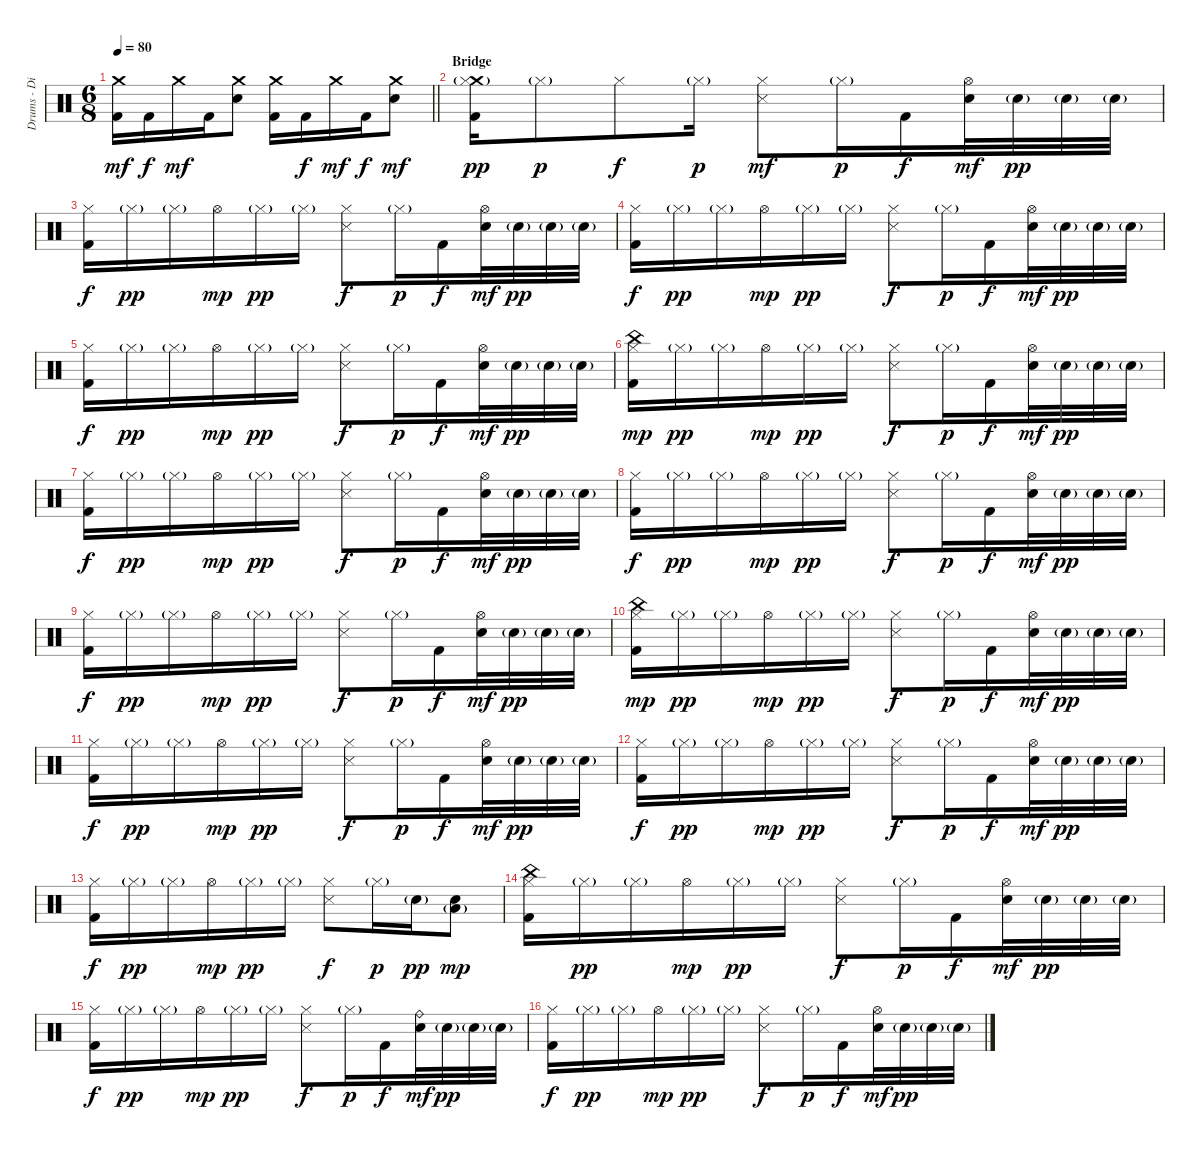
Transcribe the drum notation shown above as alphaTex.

\track ("Drums - Dino Campanella" "Drums - Di") {instrument percussion}
\staff {score}
\articulation defaults
\ts (6 8)
\tempo 80
\clef neutral
\barLineRight lightlight
\ks c
("Crash medium (hit)" "Kick (hit) 2").16{dy mf} "Kick (hit) 2".16{dy f} "Crash medium (hit)".16{dy mf} "Kick (hit) 2".16 ("Crash medium (hit)" "Electric Snare (hit)").8 ("Crash medium (hit)" "Kick (hit) 2").16 "Kick (hit) 2".16{dy f} "Crash medium (hit)".16{dy mf} "Kick (hit) 2".16{dy f} ("Crash medium (hit)" "Electric Snare (hit)").8{dy mf} |
\section ("" "Bridge")
("Crash medium (hit)"{g} "Hi-Hat (closed)"{g} "Kick (hit) 2").16{dy pp} "Hi-Hat (closed)"{g}.8{dy p} "Hi-Hat (closed)".8{dy f} "Hi-Hat (closed)"{g}.16{dy p} ("Hi-Hat (closed)" "Snare (side stick) 3").8{dy mf} "Hi-Hat (closed)"{g}.16{dy p} "Kick (hit) 2".16{dy f} ("Hi-Hat (open)" "Electric Snare (hit)").32{dy mf} "Snare (hit) 2"{g}.32{dy pp} "Snare (hit) 2"{g}.32 "Snare (hit) 2"{g}.32 |
("Hi-Hat (closed)" "Kick (hit) 2").16{dy f} "Hi-Hat (closed)"{g}.16{dy pp} "Hi-Hat (closed)"{g}.16 "Hi-Hat (open)".16{dy mp} "Hi-Hat (closed)"{g}.16{dy pp} "Hi-Hat (closed)"{g}.16 ("Hi-Hat (closed)" "Snare (side stick) 3").8{dy f} "Hi-Hat (closed)"{g}.16{dy p} "Kick (hit) 2".16{dy f} ("Hi-Hat (open)" "Electric Snare (hit)").32{dy mf} "Snare (hit) 2"{g}.32{dy pp} "Snare (hit) 2"{g}.32 "Snare (hit) 2"{g}.32 |
("Hi-Hat (closed)" "Kick (hit) 2").16{dy f} "Hi-Hat (closed)"{g}.16{dy pp} "Hi-Hat (closed)"{g}.16 "Hi-Hat (open)".16{dy mp} "Hi-Hat (closed)"{g}.16{dy pp} "Hi-Hat (closed)"{g}.16 ("Hi-Hat (closed)" "Snare (side stick) 3").8{dy f} "Hi-Hat (closed)"{g}.16{dy p} "Kick (hit) 2".16{dy f} ("Hi-Hat (open)" "Electric Snare (hit)").32{dy mf} "Snare (hit) 2"{g}.32{dy pp} "Snare (hit) 2"{g}.32 "Snare (hit) 2"{g}.32 |
("Hi-Hat (closed)" "Kick (hit) 2").16{dy f} "Hi-Hat (closed)"{g}.16{dy pp} "Hi-Hat (closed)"{g}.16 "Hi-Hat (open)".16{dy mp} "Hi-Hat (closed)"{g}.16{dy pp} "Hi-Hat (closed)"{g}.16 ("Hi-Hat (closed)" "Snare (side stick) 3").8{dy f} "Hi-Hat (closed)"{g}.16{dy p} "Kick (hit) 2".16{dy f} ("Hi-Hat (open)" "Electric Snare (hit)").32{dy mf} "Snare (hit) 2"{g}.32{dy pp} "Snare (hit) 2"{g}.32 "Snare (hit) 2"{g}.32 |
("China (hit)" "Hi-Hat (closed)" "Kick (hit) 2").16{dy mp} "Hi-Hat (closed)"{g}.16{dy pp} "Hi-Hat (closed)"{g}.16 "Hi-Hat (open)".16{dy mp} "Hi-Hat (closed)"{g}.16{dy pp} "Hi-Hat (closed)"{g}.16 ("Hi-Hat (closed)" "Snare (side stick) 3").8{dy f} "Hi-Hat (closed)"{g}.16{dy p} "Kick (hit) 2".16{dy f} ("Hi-Hat (open)" "Electric Snare (hit)").32{dy mf} "Snare (hit) 2"{g}.32{dy pp} "Snare (hit) 2"{g}.32 "Snare (hit) 2"{g}.32 |
("Hi-Hat (closed)" "Kick (hit) 2").16{dy f} "Hi-Hat (closed)"{g}.16{dy pp} "Hi-Hat (closed)"{g}.16 "Hi-Hat (open)".16{dy mp} "Hi-Hat (closed)"{g}.16{dy pp} "Hi-Hat (closed)"{g}.16 ("Hi-Hat (closed)" "Snare (side stick) 3").8{dy f} "Hi-Hat (closed)"{g}.16{dy p} "Kick (hit) 2".16{dy f} ("Hi-Hat (open)" "Electric Snare (hit)").32{dy mf} "Snare (hit) 2"{g}.32{dy pp} "Snare (hit) 2"{g}.32 "Snare (hit) 2"{g}.32 |
("Hi-Hat (closed)" "Kick (hit) 2").16{dy f} "Hi-Hat (closed)"{g}.16{dy pp} "Hi-Hat (closed)"{g}.16 "Hi-Hat (open)".16{dy mp} "Hi-Hat (closed)"{g}.16{dy pp} "Hi-Hat (closed)"{g}.16 ("Hi-Hat (closed)" "Snare (side stick) 3").8{dy f} "Hi-Hat (closed)"{g}.16{dy p} "Kick (hit) 2".16{dy f} ("Hi-Hat (open)" "Electric Snare (hit)").32{dy mf} "Snare (hit) 2"{g}.32{dy pp} "Snare (hit) 2"{g}.32 "Snare (hit) 2"{g}.32 |
("Hi-Hat (closed)" "Kick (hit) 2").16{dy f} "Hi-Hat (closed)"{g}.16{dy pp} "Hi-Hat (closed)"{g}.16 "Hi-Hat (open)".16{dy mp} "Hi-Hat (closed)"{g}.16{dy pp} "Hi-Hat (closed)"{g}.16 ("Hi-Hat (closed)" "Snare (side stick) 3").8{dy f} "Hi-Hat (closed)"{g}.16{dy p} "Kick (hit) 2".16{dy f} ("Hi-Hat (open)" "Electric Snare (hit)").32{dy mf} "Snare (hit) 2"{g}.32{dy pp} "Snare (hit) 2"{g}.32 "Snare (hit) 2"{g}.32 |
("China (hit)" "Hi-Hat (closed)" "Kick (hit) 2").16{dy mp} "Hi-Hat (closed)"{g}.16{dy pp} "Hi-Hat (closed)"{g}.16 "Hi-Hat (open)".16{dy mp} "Hi-Hat (closed)"{g}.16{dy pp} "Hi-Hat (closed)"{g}.16 ("Hi-Hat (closed)" "Snare (side stick) 3").8{dy f} "Hi-Hat (closed)"{g}.16{dy p} "Kick (hit) 2".16{dy f} ("Hi-Hat (open)" "Electric Snare (hit)").32{dy mf} "Snare (hit) 2"{g}.32{dy pp} "Snare (hit) 2"{g}.32 "Snare (hit) 2"{g}.32 |
("Hi-Hat (closed)" "Kick (hit) 2").16{dy f} "Hi-Hat (closed)"{g}.16{dy pp} "Hi-Hat (closed)"{g}.16 "Hi-Hat (open)".16{dy mp} "Hi-Hat (closed)"{g}.16{dy pp} "Hi-Hat (closed)"{g}.16 ("Hi-Hat (closed)" "Snare (side stick) 3").8{dy f} "Hi-Hat (closed)"{g}.16{dy p} "Kick (hit) 2".16{dy f} ("Hi-Hat (open)" "Electric Snare (hit)").32{dy mf} "Snare (hit) 2"{g}.32{dy pp} "Snare (hit) 2"{g}.32 "Snare (hit) 2"{g}.32 |
("Hi-Hat (closed)" "Kick (hit) 2").16{dy f} "Hi-Hat (closed)"{g}.16{dy pp} "Hi-Hat (closed)"{g}.16 "Hi-Hat (open)".16{dy mp} "Hi-Hat (closed)"{g}.16{dy pp} "Hi-Hat (closed)"{g}.16 ("Hi-Hat (closed)" "Snare (side stick) 3").8{dy f} "Hi-Hat (closed)"{g}.16{dy p} "Kick (hit) 2".16{dy f} ("Hi-Hat (open)" "Electric Snare (hit)").32{dy mf} "Snare (hit) 2"{g}.32{dy pp} "Snare (hit) 2"{g}.32 "Snare (hit) 2"{g}.32 |
("Hi-Hat (closed)" "Kick (hit) 2").16{dy f} "Hi-Hat (closed)"{g}.16{dy pp} "Hi-Hat (closed)"{g}.16 "Hi-Hat (open)".16{dy mp} "Hi-Hat (closed)"{g}.16{dy pp} "Hi-Hat (closed)"{g}.16 ("Hi-Hat (closed)" "Snare (side stick) 3").8{dy f} "Hi-Hat (closed)"{g}.16{dy p} "Electric Snare (hit)"{g}.16{dy pp} ("Electric Snare (hit)" "Low Tom (hit)"{g}).8{dy mp} |
("China (hit)" "Hi-Hat (closed)" "Kick (hit) 2").16 "Hi-Hat (closed)"{g}.16{dy pp} "Hi-Hat (closed)"{g}.16 "Hi-Hat (open)".16{dy mp} "Hi-Hat (closed)"{g}.16{dy pp} "Hi-Hat (closed)"{g}.16 ("Hi-Hat (closed)" "Snare (side stick) 3").8{dy f} "Hi-Hat (closed)"{g}.16{dy p} "Kick (hit) 2".16{dy f} ("Hi-Hat (open)" "Electric Snare (hit)").32{dy mf} "Snare (hit) 2"{g}.32{dy pp} "Snare (hit) 2"{g}.32 "Snare (hit) 2"{g}.32 |
("Hi-Hat (closed)" "Kick (hit) 2").16{dy f} "Hi-Hat (closed)"{g}.16{dy pp} "Hi-Hat (closed)"{g}.16 "Hi-Hat (open)".16{dy mp} "Hi-Hat (closed)"{g}.16{dy pp} "Hi-Hat (closed)"{g}.16 ("Hi-Hat (closed)" "Snare (side stick) 3").8{dy f} "Hi-Hat (closed)"{g}.16{dy p} "Kick (hit) 2".16{dy f} ("Ride (bell)" "Electric Snare (hit)").32{dy mf} "Snare (hit) 2"{g}.32{dy pp} "Snare (hit) 2"{g}.32 "Snare (hit) 2"{g}.32 |
("Hi-Hat (closed)" "Kick (hit) 2").16{dy f} "Hi-Hat (closed)"{g}.16{dy pp} "Hi-Hat (closed)"{g}.16 "Hi-Hat (open)".16{dy mp} "Hi-Hat (closed)"{g}.16{dy pp} "Hi-Hat (closed)"{g}.16 ("Hi-Hat (closed)" "Snare (side stick) 3").8{dy f} "Hi-Hat (closed)"{g}.16{dy p} "Kick (hit) 2".16{dy f} ("Hi-Hat (open)" "Electric Snare (hit)").32{dy mf} "Snare (hit) 2"{g}.32{dy pp} "Snare (hit) 2"{g}.32 "Snare (hit) 2"{g}.32
